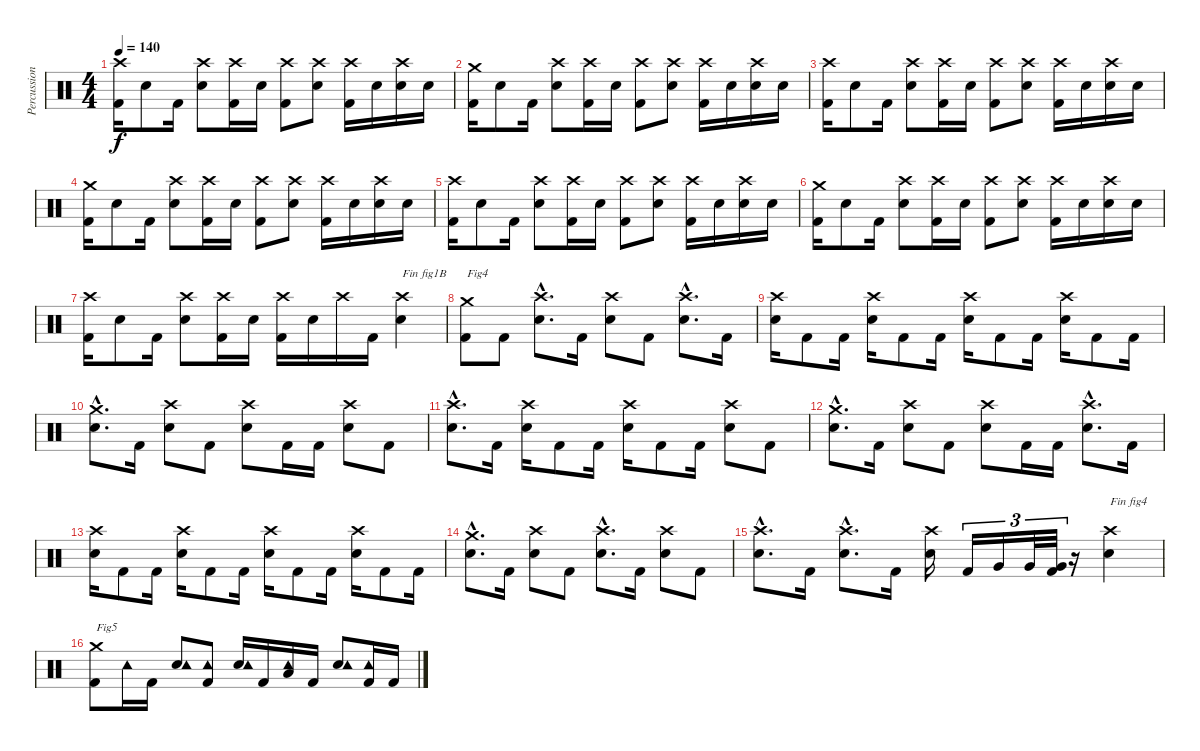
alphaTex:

\track ("Percussions" "Percussion") {instrument percussion}
\staff {score}
\articulation defaults
\ts (4 4)
\tempo 140
\clef neutral
\ks c
("Kick (hit) 2" "Crash high (hit)").16{dy f} "Electric Snare (hit)".8 "Kick (hit) 2".16 ("Electric Snare (hit)" "Crash high (hit)").8 ("Kick (hit) 2" "Crash high (hit)").16 "Electric Snare (hit)".16 ("Kick (hit) 2" "Crash high (hit)").8 ("Electric Snare (hit)" "Crash high (hit)").8 ("Kick (hit) 2" "Crash high (hit)").16 "Electric Snare (hit)".16 ("Electric Snare (hit)" "Crash high (hit)").16 "Electric Snare (hit)".16 |
("Kick (hit) 2" "Crash medium (hit)").16 "Electric Snare (hit)".8 "Kick (hit) 2".16 ("Electric Snare (hit)" "Crash high (hit)").8 ("Kick (hit) 2" "Crash high (hit)").16 "Electric Snare (hit)".16 ("Kick (hit) 2" "Crash high (hit)").8 ("Electric Snare (hit)" "Crash high (hit)").8 ("Kick (hit) 2" "Crash high (hit)").16 "Electric Snare (hit)".16 ("Electric Snare (hit)" "Crash high (hit)").16 "Electric Snare (hit)".16 |
("Kick (hit) 2" "Crash high (hit)").16 "Electric Snare (hit)".8 "Kick (hit) 2".16 ("Electric Snare (hit)" "Crash high (hit)").8 ("Kick (hit) 2" "Crash high (hit)").16 "Electric Snare (hit)".16 ("Kick (hit) 2" "Crash high (hit)").8 ("Electric Snare (hit)" "Crash high (hit)").8 ("Kick (hit) 2" "Crash high (hit)").16 "Electric Snare (hit)".16 ("Electric Snare (hit)" "Crash high (hit)").16 "Electric Snare (hit)".16 |
("Kick (hit) 2" "Crash medium (hit)").16 "Electric Snare (hit)".8 "Kick (hit) 2".16 ("Electric Snare (hit)" "Crash high (hit)").8 ("Kick (hit) 2" "Crash high (hit)").16 "Electric Snare (hit)".16 ("Kick (hit) 2" "Crash high (hit)").8 ("Electric Snare (hit)" "Crash high (hit)").8 ("Kick (hit) 2" "Crash high (hit)").16 "Electric Snare (hit)".16 ("Electric Snare (hit)" "Crash high (hit)").16 "Electric Snare (hit)".16 |
("Kick (hit) 2" "Crash high (hit)").16 "Electric Snare (hit)".8 "Kick (hit) 2".16 ("Electric Snare (hit)" "Crash high (hit)").8 ("Kick (hit) 2" "Crash high (hit)").16 "Electric Snare (hit)".16 ("Kick (hit) 2" "Crash high (hit)").8 ("Electric Snare (hit)" "Crash high (hit)").8 ("Kick (hit) 2" "Crash high (hit)").16 "Electric Snare (hit)".16 ("Electric Snare (hit)" "Crash high (hit)").16 "Electric Snare (hit)".16 |
("Kick (hit) 2" "Crash medium (hit)").16 "Electric Snare (hit)".8 "Kick (hit) 2".16 ("Electric Snare (hit)" "Crash high (hit)").8 ("Kick (hit) 2" "Crash high (hit)").16 "Electric Snare (hit)".16 ("Kick (hit) 2" "Crash high (hit)").8 ("Electric Snare (hit)" "Crash high (hit)").8 ("Kick (hit) 2" "Crash high (hit)").16 "Electric Snare (hit)".16 ("Electric Snare (hit)" "Crash high (hit)").16 "Electric Snare (hit)".16 |
("Kick (hit) 2" "Crash high (hit)").16 "Electric Snare (hit)".8 "Kick (hit) 2".16 ("Electric Snare (hit)" "Crash high (hit)").8 ("Kick (hit) 2" "Crash high (hit)").16 "Electric Snare (hit)".16 ("Kick (hit) 2" "Crash high (hit)").16 "Electric Snare (hit)".16 "Crash high (hit)".16 "Kick (hit) 2".16 ("Electric Snare (hit)" "Crash high (hit)").4{txt "Fin fig1B"} |
("Kick (hit) 2" "Crash medium (hit)").8{txt "Fig4"} "Kick (hit) 2".8 ("Electric Snare (hit)"{hac} "Crash high (hit)"{hac}).8{d} "Kick (hit) 2".16 ("Electric Snare (hit)" "Crash high (hit)").8 "Kick (hit) 2".8 ("Electric Snare (hit)"{hac} "Crash high (hit)"{hac}).8{d} "Kick (hit) 2".16 |
("Electric Snare (hit)" "Crash high (hit)").16 "Kick (hit) 2".8 "Kick (hit) 2".16 ("Electric Snare (hit)" "Crash high (hit)").16 "Kick (hit) 2".8 "Kick (hit) 2".16 ("Electric Snare (hit)" "Crash high (hit)").16 "Kick (hit) 2".8 "Kick (hit) 2".16 ("Electric Snare (hit)" "Crash high (hit)").16 "Kick (hit) 2".8 "Kick (hit) 2".16 |
("Electric Snare (hit)"{hac} "Crash medium (hit)"{hac}).8{d} "Kick (hit) 2".16 ("Electric Snare (hit)" "Crash high (hit)").8 "Kick (hit) 2".8 ("Electric Snare (hit)" "Crash high (hit)").8 "Kick (hit) 2".16 "Kick (hit) 2".16 ("Electric Snare (hit)" "Crash high (hit)").8 "Kick (hit) 2".8 |
("Electric Snare (hit)"{hac} "Crash high (hit)"{hac}).8{d} "Kick (hit) 2".16 ("Electric Snare (hit)" "Crash high (hit)").16 "Kick (hit) 2".8 "Kick (hit) 2".16 ("Electric Snare (hit)" "Crash high (hit)").16 "Kick (hit) 2".8 "Kick (hit) 2".16 ("Electric Snare (hit)" "Crash high (hit)").8 "Kick (hit) 2".8 |
("Electric Snare (hit)"{hac} "Crash medium (hit)"{hac}).8{d} "Kick (hit) 2".16 ("Electric Snare (hit)" "Crash high (hit)").8 "Kick (hit) 2".8 ("Electric Snare (hit)" "Crash high (hit)").8 "Kick (hit) 2".16 "Kick (hit) 2".16 ("Electric Snare (hit)"{hac} "Crash high (hit)"{hac}).8{d} "Kick (hit) 2".16 |
("Electric Snare (hit)" "Crash high (hit)").16 "Kick (hit) 2".8 "Kick (hit) 2".16 ("Electric Snare (hit)" "Crash high (hit)").16 "Kick (hit) 2".8 "Kick (hit) 2".16 ("Electric Snare (hit)" "Crash high (hit)").16 "Kick (hit) 2".8 "Kick (hit) 2".16 ("Electric Snare (hit)" "Crash high (hit)").16 "Kick (hit) 2".8 "Kick (hit) 2".16 |
("Electric Snare (hit)"{hac} "Crash medium (hit)"{hac}).8{d} "Kick (hit) 2".16 ("Electric Snare (hit)" "Crash high (hit)").8 "Kick (hit) 2".8 ("Electric Snare (hit)"{hac} "Crash high (hit)"{hac}).8{d} "Kick (hit) 2".16 ("Electric Snare (hit)" "Crash high (hit)").8 "Kick (hit) 2".8 |
("Electric Snare (hit)"{hac} "Crash high (hit)"{hac}).8{d} "Kick (hit) 2".16 ("Electric Snare (hit)"{hac} "Crash high (hit)"{hac}).8{d} "Kick (hit) 2".16 ("Electric Snare (hit)" "Crash high (hit)").16 "Kick (hit) 2".16{tu (3 2)} "Very Low Tom (hit)".16{tu (3 2)} "Very Low Tom (hit)".32{tu (3 2)} ("Kick (hit) 2" "Very Low Tom (hit)").32{tu (3 2)} r.16 ("Electric Snare (hit)" "Crash high (hit)").4{txt "Fin fig4"} |
("Kick (hit) 2" "Crash medium (hit)").8{txt "Fig5"} "Tambourine (hit)".16 "Kick (hit) 2".16 ("Electric Snare (hit)" "Tambourine (hit)").8 ("Kick (hit) 2" "Tambourine (hit)").8 ("Electric Snare (hit)" "Tambourine (hit)").16 "Kick (hit) 2".16 ("Low Floor Tom (hit)" "Tambourine (hit)").16 "Kick (hit) 2".16 ("Electric Snare (hit)" "Tambourine (hit)").8 ("Kick (hit) 2" "Tambourine (hit)").16 "Kick (hit) 2".16
